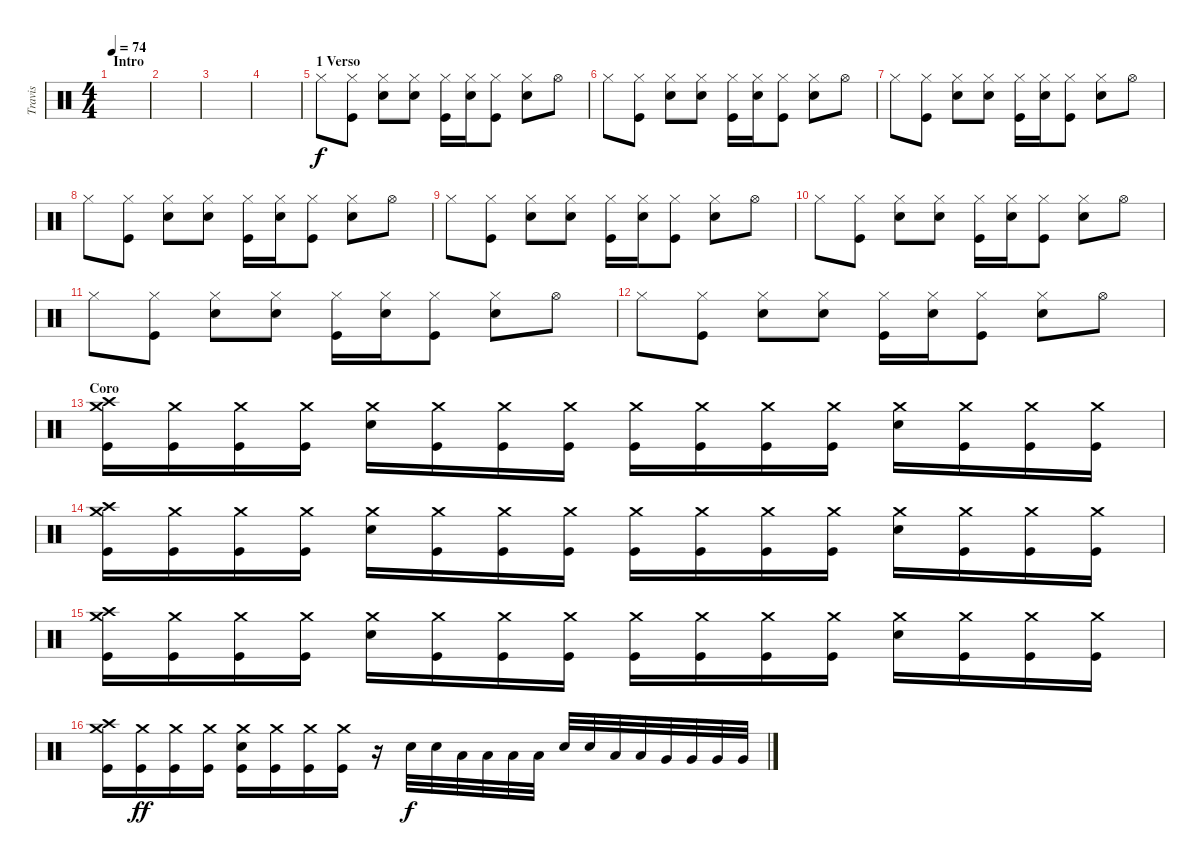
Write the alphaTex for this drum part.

\track ("Travis" "Travis") {instrument percussion}
\staff {score}
\articulation defaults
\ts (4 4)
\section ("" "Intro")
\tempo 74
\clef neutral
\ks c
|
|
|
|
\section ("" "1 Verso")
"Hi-Hat (closed)".8 ("Hi-Hat (closed)" "Kick (hit)").8 ("Hi-Hat (closed)" "Electric Snare (hit)").8 ("Hi-Hat (closed)" "Electric Snare (hit)").8 ("Hi-Hat (closed)" "Kick (hit)").16 ("Hi-Hat (closed)" "Electric Snare (hit)").16 ("Hi-Hat (closed)" "Kick (hit)").8 ("Hi-Hat (closed)" "Electric Snare (hit)").8 "Hi-Hat (open)".8 |
"Hi-Hat (closed)".8 ("Hi-Hat (closed)" "Kick (hit)").8 ("Hi-Hat (closed)" "Electric Snare (hit)").8 ("Hi-Hat (closed)" "Electric Snare (hit)").8 ("Hi-Hat (closed)" "Kick (hit)").16 ("Hi-Hat (closed)" "Electric Snare (hit)").16 ("Hi-Hat (closed)" "Kick (hit)").8 ("Hi-Hat (closed)" "Electric Snare (hit)").8 "Hi-Hat (open)".8 |
"Hi-Hat (closed)".8 ("Hi-Hat (closed)" "Kick (hit)").8 ("Hi-Hat (closed)" "Electric Snare (hit)").8 ("Hi-Hat (closed)" "Electric Snare (hit)").8 ("Hi-Hat (closed)" "Kick (hit)").16 ("Hi-Hat (closed)" "Electric Snare (hit)").16 ("Hi-Hat (closed)" "Kick (hit)").8 ("Hi-Hat (closed)" "Electric Snare (hit)").8 "Hi-Hat (open)".8 |
"Hi-Hat (closed)".8 ("Hi-Hat (closed)" "Kick (hit)").8 ("Hi-Hat (closed)" "Electric Snare (hit)").8 ("Hi-Hat (closed)" "Electric Snare (hit)").8 ("Hi-Hat (closed)" "Kick (hit)").16 ("Hi-Hat (closed)" "Electric Snare (hit)").16 ("Hi-Hat (closed)" "Kick (hit)").8 ("Hi-Hat (closed)" "Electric Snare (hit)").8 "Hi-Hat (open)".8 |
"Hi-Hat (closed)".8 ("Hi-Hat (closed)" "Kick (hit)").8 ("Hi-Hat (closed)" "Electric Snare (hit)").8 ("Hi-Hat (closed)" "Electric Snare (hit)").8 ("Hi-Hat (closed)" "Kick (hit)").16 ("Hi-Hat (closed)" "Electric Snare (hit)").16 ("Hi-Hat (closed)" "Kick (hit)").8 ("Hi-Hat (closed)" "Electric Snare (hit)").8 "Hi-Hat (open)".8 |
"Hi-Hat (closed)".8 ("Hi-Hat (closed)" "Kick (hit)").8 ("Hi-Hat (closed)" "Electric Snare (hit)").8 ("Hi-Hat (closed)" "Electric Snare (hit)").8 ("Hi-Hat (closed)" "Kick (hit)").16 ("Hi-Hat (closed)" "Electric Snare (hit)").16 ("Hi-Hat (closed)" "Kick (hit)").8 ("Hi-Hat (closed)" "Electric Snare (hit)").8 "Hi-Hat (open)".8 |
"Hi-Hat (closed)".8 ("Hi-Hat (closed)" "Kick (hit)").8 ("Hi-Hat (closed)" "Electric Snare (hit)").8 ("Hi-Hat (closed)" "Electric Snare (hit)").8 ("Hi-Hat (closed)" "Kick (hit)").16 ("Hi-Hat (closed)" "Electric Snare (hit)").16 ("Hi-Hat (closed)" "Kick (hit)").8 ("Hi-Hat (closed)" "Electric Snare (hit)").8 "Hi-Hat (open)".8 |
"Hi-Hat (closed)".8 ("Hi-Hat (closed)" "Kick (hit)").8 ("Hi-Hat (closed)" "Electric Snare (hit)").8 ("Hi-Hat (closed)" "Electric Snare (hit)").8 ("Hi-Hat (closed)" "Kick (hit)").16 ("Hi-Hat (closed)" "Electric Snare (hit)").16 ("Hi-Hat (closed)" "Kick (hit)").8 ("Hi-Hat (closed)" "Electric Snare (hit)").8 "Hi-Hat (open)".8 |
\section ("" "Coro")
("Crash high (hit)" "Crash medium (hit)" "Kick (hit)").16 ("Crash medium (hit)" "Kick (hit)").16 ("Crash medium (hit)" "Kick (hit)").16 ("Crash medium (hit)" "Kick (hit)").16 ("Crash medium (hit)" "Electric Snare (hit)").16 ("Crash medium (hit)" "Kick (hit)").16 ("Crash medium (hit)" "Kick (hit)").16 ("Crash medium (hit)" "Kick (hit)").16 ("Crash medium (hit)" "Kick (hit)").16 ("Crash medium (hit)" "Kick (hit)").16 ("Crash medium (hit)" "Kick (hit)").16 ("Crash medium (hit)" "Kick (hit)").16 ("Crash medium (hit)" "Electric Snare (hit)").16 ("Crash medium (hit)" "Kick (hit)").16 ("Crash medium (hit)" "Kick (hit)").16 ("Crash medium (hit)" "Kick (hit)").16 |
("Crash high (hit)" "Crash medium (hit)" "Kick (hit)").16 ("Crash medium (hit)" "Kick (hit)").16 ("Crash medium (hit)" "Kick (hit)").16 ("Crash medium (hit)" "Kick (hit)").16 ("Crash medium (hit)" "Electric Snare (hit)").16 ("Crash medium (hit)" "Kick (hit)").16 ("Crash medium (hit)" "Kick (hit)").16 ("Crash medium (hit)" "Kick (hit)").16 ("Crash medium (hit)" "Kick (hit)").16 ("Crash medium (hit)" "Kick (hit)").16 ("Crash medium (hit)" "Kick (hit)").16 ("Crash medium (hit)" "Kick (hit)").16 ("Crash medium (hit)" "Electric Snare (hit)").16 ("Crash medium (hit)" "Kick (hit)").16 ("Crash medium (hit)" "Kick (hit)").16 ("Crash medium (hit)" "Kick (hit)").16 |
("Crash high (hit)" "Crash medium (hit)" "Kick (hit)").16 ("Crash medium (hit)" "Kick (hit)").16 ("Crash medium (hit)" "Kick (hit)").16 ("Crash medium (hit)" "Kick (hit)").16 ("Crash medium (hit)" "Electric Snare (hit)").16 ("Crash medium (hit)" "Kick (hit)").16 ("Crash medium (hit)" "Kick (hit)").16 ("Crash medium (hit)" "Kick (hit)").16 ("Crash medium (hit)" "Kick (hit)").16 ("Crash medium (hit)" "Kick (hit)").16 ("Crash medium (hit)" "Kick (hit)").16 ("Crash medium (hit)" "Kick (hit)").16 ("Crash medium (hit)" "Electric Snare (hit)").16 ("Crash medium (hit)" "Kick (hit)").16 ("Crash medium (hit)" "Kick (hit)").16 ("Crash medium (hit)" "Kick (hit)").16 |
("Crash high (hit)" "Crash medium (hit)" "Kick (hit)").16 ("Crash medium (hit)" "Kick (hit)").16{dy ff} ("Crash medium (hit)" "Kick (hit)").16 ("Crash medium (hit)" "Kick (hit)").16 ("Crash medium (hit)" "Electric Snare (hit)" "Kick (hit)").16 ("Crash medium (hit)" "Kick (hit)").16 ("Crash medium (hit)" "Kick (hit)").16 ("Crash medium (hit)" "Kick (hit)").16 r.16 "Electric Snare (hit)".32{dy f} "Electric Snare (hit)".32 "Low Tom (hit)".32 "Low Tom (hit)".32 "Low Tom (hit)".32 "Low Tom (hit)".32 "Electric Snare (hit)".32 "Electric Snare (hit)".32 "Low Tom (hit)".32 "Low Tom (hit)".32 "Very Low Tom (hit)".32 "Very Low Tom (hit)".32 "Very Low Tom (hit)".32 "Very Low Tom (hit)".32
